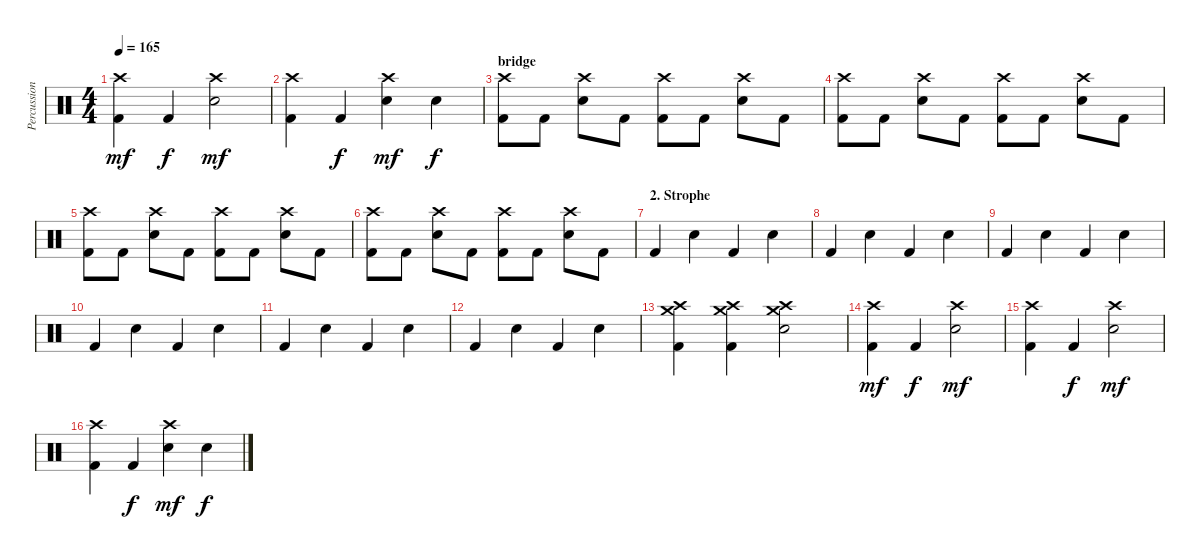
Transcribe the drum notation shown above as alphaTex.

\track ("Percussion" "Percussion") {instrument percussion}
\staff {score}
\articulation defaults
\ts (4 4)
\tempo 165
\clef neutral
\ks c
("Crash high (hit)" "Kick (hit) 2").4{dy mf} "Kick (hit) 2".4{dy f} ("Crash high (hit)" "Electric Snare (hit)").2{dy mf} |
("Crash high (hit)" "Kick (hit) 2").4 "Kick (hit) 2".4{dy f} ("Crash high (hit)" "Electric Snare (hit)").4{dy mf} "Electric Snare (hit)".4{dy f} |
\section ("" "bridge")
("Crash high (hit)" "Kick (hit) 2").8 "Kick (hit) 2".8 ("Crash high (hit)" "Electric Snare (hit)").8 "Kick (hit) 2".8 ("Crash high (hit)" "Kick (hit) 2").8 "Kick (hit) 2".8 ("Crash high (hit)" "Electric Snare (hit)").8 "Kick (hit) 2".8 |
("Crash high (hit)" "Kick (hit) 2").8 "Kick (hit) 2".8 ("Crash high (hit)" "Electric Snare (hit)").8 "Kick (hit) 2".8 ("Crash high (hit)" "Kick (hit) 2").8 "Kick (hit) 2".8 ("Crash high (hit)" "Electric Snare (hit)").8 "Kick (hit) 2".8 |
("Crash high (hit)" "Kick (hit) 2").8 "Kick (hit) 2".8 ("Crash high (hit)" "Electric Snare (hit)").8 "Kick (hit) 2".8 ("Crash high (hit)" "Kick (hit) 2").8 "Kick (hit) 2".8 ("Crash high (hit)" "Electric Snare (hit)").8 "Kick (hit) 2".8 |
("Crash high (hit)" "Kick (hit) 2").8 "Kick (hit) 2".8 ("Crash high (hit)" "Electric Snare (hit)").8 "Kick (hit) 2".8 ("Crash high (hit)" "Kick (hit) 2").8 "Kick (hit) 2".8 ("Crash high (hit)" "Electric Snare (hit)").8 "Kick (hit) 2".8 |
\section ("" "2. Strophe")
"Kick (hit) 2".4 "Electric Snare (hit)".4 "Kick (hit) 2".4 "Electric Snare (hit)".4 |
"Kick (hit) 2".4 "Electric Snare (hit)".4 "Kick (hit) 2".4 "Electric Snare (hit)".4 |
"Kick (hit) 2".4 "Electric Snare (hit)".4 "Kick (hit) 2".4 "Electric Snare (hit)".4 |
"Kick (hit) 2".4 "Electric Snare (hit)".4 "Kick (hit) 2".4 "Electric Snare (hit)".4 |
"Kick (hit) 2".4 "Electric Snare (hit)".4 "Kick (hit) 2".4 "Electric Snare (hit)".4 |
"Kick (hit) 2".4 "Electric Snare (hit)".4 "Kick (hit) 2".4 "Electric Snare (hit)".4 |
("Crash high (hit)" "Crash medium (hit)" "Kick (hit) 2").4 ("Crash high (hit)" "Crash medium (hit)" "Kick (hit) 2").4 ("Crash high (hit)" "Crash medium (hit)" "Electric Snare (hit)").2 |
("Crash high (hit)" "Kick (hit) 2").4{dy mf} "Kick (hit) 2".4{dy f} ("Crash high (hit)" "Electric Snare (hit)").2{dy mf} |
("Crash high (hit)" "Kick (hit) 2").4 "Kick (hit) 2".4{dy f} ("Crash high (hit)" "Electric Snare (hit)").2{dy mf} |
("Crash high (hit)" "Kick (hit) 2").4 "Kick (hit) 2".4{dy f} ("Crash high (hit)" "Electric Snare (hit)").4{dy mf} "Electric Snare (hit)".4{dy f}
